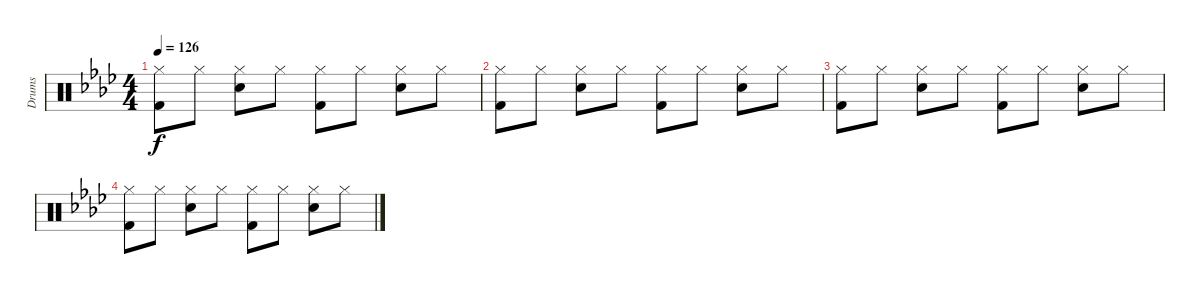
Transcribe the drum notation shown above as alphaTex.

\track ("Drums" "Drums") {instrument percussion}
\staff {score}
\articulation defaults
\ts (4 4)
\tempo 126
\clef neutral
\ks ab
("Hi-Hat (closed)" "Kick (hit) 2").8{dy f} "Hi-Hat (closed)".8 ("Hi-Hat (closed)" "Electric Snare (hit)").8 "Hi-Hat (closed)".8 ("Hi-Hat (closed)" "Kick (hit) 2").8 "Hi-Hat (closed)".8 ("Hi-Hat (closed)" "Electric Snare (hit)").8 "Hi-Hat (closed)".8 |
("Hi-Hat (closed)" "Kick (hit) 2").8 "Hi-Hat (closed)".8 ("Hi-Hat (closed)" "Electric Snare (hit)").8 "Hi-Hat (closed)".8 ("Hi-Hat (closed)" "Kick (hit) 2").8 "Hi-Hat (closed)".8 ("Hi-Hat (closed)" "Electric Snare (hit)").8 "Hi-Hat (closed)".8 |
("Hi-Hat (closed)" "Kick (hit) 2").8 "Hi-Hat (closed)".8 ("Hi-Hat (closed)" "Electric Snare (hit)").8 "Hi-Hat (closed)".8 ("Hi-Hat (closed)" "Kick (hit) 2").8 "Hi-Hat (closed)".8 ("Hi-Hat (closed)" "Electric Snare (hit)").8 "Hi-Hat (closed)".8 |
("Hi-Hat (closed)" "Kick (hit) 2").8 "Hi-Hat (closed)".8 ("Hi-Hat (closed)" "Electric Snare (hit)").8 "Hi-Hat (closed)".8 ("Hi-Hat (closed)" "Kick (hit) 2").8 "Hi-Hat (closed)".8 ("Hi-Hat (closed)" "Electric Snare (hit)").8 "Hi-Hat (closed)".8
